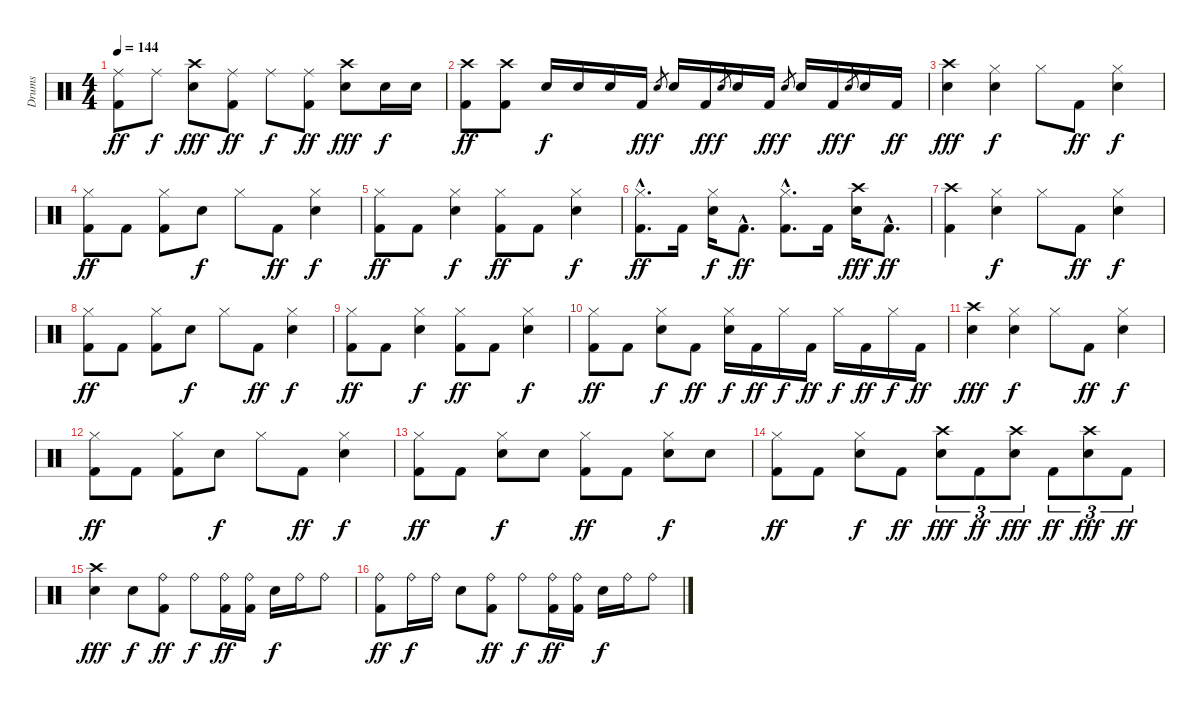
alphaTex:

\track ("Drums" "Drums") {instrument percussion}
\staff {score}
\articulation defaults
\ts (4 4)
\tempo 144
\clef neutral
\ks c
("Ride (middle)" "Kick (hit) 2").8{dy ff} "Ride (middle)".8{dy f} ("Crash high (hit)" "Snare (hit) 2").8{dy fff} ("Ride (middle)" "Kick (hit) 2").8{dy ff} "Ride (middle)".8{dy f} ("Ride (middle)" "Kick (hit) 2").8{dy ff} ("Crash high (hit)" "Snare (hit) 2").8{dy fff} "Snare (hit) 2".16{dy f} "Snare (hit) 2".16 |
("Crash high (hit)" "Kick (hit) 2").8{dy ff} ("Crash high (hit)" "Kick (hit) 2").8 "Snare (hit) 2".16{dy f} "Snare (hit) 2".16 "Snare (hit) 2".16 "Kick (hit) 2".16{dy ff} "Snare (hit) 2".8{gr dy f} "Snare (hit) 2".16 "Kick (hit) 2".16{dy ff} "Snare (hit) 2".8{gr dy f} "Snare (hit) 2".16 "Kick (hit) 2".16{dy ff} "Snare (hit) 2".8{gr dy f} "Snare (hit) 2".16 "Kick (hit) 2".16{dy ff} "Snare (hit) 2".8{gr dy f} "Snare (hit) 2".16 "Kick (hit) 2".16{dy ff} |
("Crash high (hit)" "Snare (hit) 2").4{dy fff} ("Hi-Hat (closed)" "Snare (hit) 2").4{dy f} "Hi-Hat (closed)".8 "Kick (hit) 2".8{dy ff} ("Hi-Hat (closed)" "Snare (hit) 2").4{dy f} |
("Hi-Hat (closed)" "Kick (hit) 2").8{dy ff} "Kick (hit) 2".8 ("Hi-Hat (closed)" "Kick (hit) 2").8 "Snare (hit) 2".8{dy f} "Hi-Hat (closed)".8 "Kick (hit) 2".8{dy ff} ("Hi-Hat (closed)" "Snare (hit) 2").4{dy f} |
("Hi-Hat (closed)" "Kick (hit) 2").8{dy ff} "Kick (hit) 2".8 ("Hi-Hat (closed)" "Snare (hit) 2").4{dy f} ("Hi-Hat (closed)" "Kick (hit) 2").8{dy ff} "Kick (hit) 2".8 ("Hi-Hat (closed)" "Snare (hit) 2").4{dy f} |
("Hi-Hat (closed)"{hac} "Kick (hit) 2"{hac}).8{d dy ff} "Kick (hit) 2".16 ("Hi-Hat (closed)" "Snare (hit) 2").16{dy f} "Kick (hit) 2"{hac}.8{d dy ff} ("Hi-Hat (closed)"{hac} "Kick (hit) 2"{hac}).8{d} "Kick (hit) 2".16 ("Crash high (hit)" "Snare (hit) 2").16{dy fff} "Kick (hit) 2"{hac}.8{d dy ff} |
("Crash high (hit)" "Kick (hit) 2").4 ("Hi-Hat (closed)" "Snare (hit) 2").4{dy f} "Hi-Hat (closed)".8 "Kick (hit) 2".8{dy ff} ("Hi-Hat (closed)" "Snare (hit) 2").4{dy f} |
("Hi-Hat (closed)" "Kick (hit) 2").8{dy ff} "Kick (hit) 2".8 ("Hi-Hat (closed)" "Kick (hit) 2").8 "Snare (hit) 2".8{dy f} "Hi-Hat (closed)".8 "Kick (hit) 2".8{dy ff} ("Hi-Hat (closed)" "Snare (hit) 2").4{dy f} |
("Hi-Hat (closed)" "Kick (hit) 2").8{dy ff} "Kick (hit) 2".8 ("Hi-Hat (closed)" "Snare (hit) 2").4{dy f} ("Hi-Hat (closed)" "Kick (hit) 2").8{dy ff} "Kick (hit) 2".8 ("Hi-Hat (closed)" "Snare (hit) 2").4{dy f} |
("Hi-Hat (closed)" "Kick (hit) 2").8{dy ff} "Kick (hit) 2".8 ("Hi-Hat (closed)" "Snare (hit) 2").8{dy f} "Kick (hit) 2".8{dy ff} ("Hi-Hat (closed)" "Snare (hit) 2").16{dy f} "Kick (hit) 2".16{dy ff} "Hi-Hat (closed)".16{dy f} "Kick (hit) 2".16{dy ff} "Hi-Hat (closed)".16{dy f} "Kick (hit) 2".16{dy ff} "Hi-Hat (closed)".16{dy f} "Kick (hit) 2".16{dy ff} |
("Crash high (hit)" "Snare (hit) 2").4{dy fff} ("Hi-Hat (closed)" "Snare (hit) 2").4{dy f} "Hi-Hat (closed)".8 "Kick (hit) 2".8{dy ff} ("Hi-Hat (closed)" "Snare (hit) 2").4{dy f} |
("Hi-Hat (closed)" "Kick (hit) 2").8{dy ff} "Kick (hit) 2".8 ("Hi-Hat (closed)" "Kick (hit) 2").8 "Snare (hit) 2".8{dy f} "Hi-Hat (closed)".8 "Kick (hit) 2".8{dy ff} ("Hi-Hat (closed)" "Snare (hit) 2").4{dy f} |
("Hi-Hat (closed)" "Kick (hit) 2").8{dy ff} "Kick (hit) 2".8 ("Hi-Hat (closed)" "Snare (hit) 2").8{dy f} "Snare (hit) 2".8 ("Hi-Hat (closed)" "Kick (hit) 2").8{dy ff} "Kick (hit) 2".8 ("Hi-Hat (closed)" "Snare (hit) 2").8{dy f} "Snare (hit) 2".8 |
("Hi-Hat (closed)" "Kick (hit) 2").8{dy ff} "Kick (hit) 2".8 ("Hi-Hat (closed)" "Snare (hit) 2").8{dy f} "Kick (hit) 2".8{dy ff} ("Crash high (hit)" "Snare (hit) 2").8{tu (3 2) dy fff} "Kick (hit) 2".8{tu (3 2) dy ff} ("Crash high (hit)" "Snare (hit) 2").8{tu (3 2) dy fff} "Kick (hit) 2".8{tu (3 2) dy ff} ("Crash high (hit)" "Snare (hit) 2").8{tu (3 2) dy fff} "Kick (hit) 2".8{tu (3 2) dy ff} |
("Crash high (hit)" "Snare (hit) 2").4{dy fff} "Snare (hit) 2".8{dy f} ("Ride (bell)" "Kick (hit) 2").8{dy ff} "Ride (bell)".8{dy f} ("Ride (bell)" "Kick (hit) 2").16{dy ff} ("Ride (bell)" "Kick (hit) 2").16 "Snare (hit) 2".16{dy f} "Ride (bell)".16 "Ride (bell)".8 |
("Ride (bell)" "Kick (hit) 2").8{dy ff} "Ride (bell)".16{dy f} "Ride (bell)".16 "Snare (hit) 2".8 ("Ride (bell)" "Kick (hit) 2").8{dy ff} "Ride (bell)".8{dy f} ("Ride (bell)" "Kick (hit) 2").16{dy ff} ("Ride (bell)" "Kick (hit) 2").16 "Snare (hit) 2".16{dy f} "Ride (bell)".16 "Ride (bell)".8
